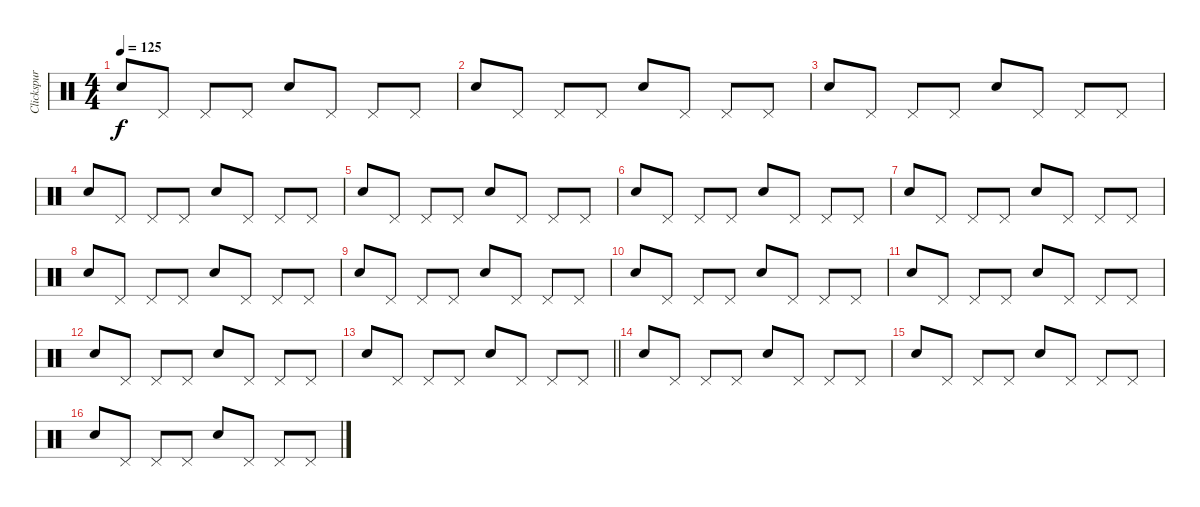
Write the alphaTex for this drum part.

\track ("Clickspur" "Clickspur") {instrument percussion}
\staff {score}
\articulation defaults
\ts (4 4)
\tempo 125
\clef neutral
\ks c "Electric Snare (hit)".8{dy f} "Pedal Hi-Hat (hit)".8 "Pedal Hi-Hat (hit)".8 "Pedal Hi-Hat (hit)".8 "Electric Snare (hit)".8 "Pedal Hi-Hat (hit)".8 "Pedal Hi-Hat (hit)".8 "Pedal Hi-Hat (hit)".8
|
"Electric Snare (hit)".8 "Pedal Hi-Hat (hit)".8 "Pedal Hi-Hat (hit)".8 "Pedal Hi-Hat (hit)".8 "Electric Snare (hit)".8 "Pedal Hi-Hat (hit)".8 "Pedal Hi-Hat (hit)".8 "Pedal Hi-Hat (hit)".8 |
"Electric Snare (hit)".8 "Pedal Hi-Hat (hit)".8 "Pedal Hi-Hat (hit)".8 "Pedal Hi-Hat (hit)".8 "Electric Snare (hit)".8 "Pedal Hi-Hat (hit)".8 "Pedal Hi-Hat (hit)".8 "Pedal Hi-Hat (hit)".8 |
"Electric Snare (hit)".8 "Pedal Hi-Hat (hit)".8 "Pedal Hi-Hat (hit)".8 "Pedal Hi-Hat (hit)".8 "Electric Snare (hit)".8 "Pedal Hi-Hat (hit)".8 "Pedal Hi-Hat (hit)".8 "Pedal Hi-Hat (hit)".8 |
"Electric Snare (hit)".8 "Pedal Hi-Hat (hit)".8 "Pedal Hi-Hat (hit)".8 "Pedal Hi-Hat (hit)".8 "Electric Snare (hit)".8 "Pedal Hi-Hat (hit)".8 "Pedal Hi-Hat (hit)".8 "Pedal Hi-Hat (hit)".8 |
"Electric Snare (hit)".8 "Pedal Hi-Hat (hit)".8 "Pedal Hi-Hat (hit)".8 "Pedal Hi-Hat (hit)".8 "Electric Snare (hit)".8 "Pedal Hi-Hat (hit)".8 "Pedal Hi-Hat (hit)".8 "Pedal Hi-Hat (hit)".8 |
"Electric Snare (hit)".8 "Pedal Hi-Hat (hit)".8 "Pedal Hi-Hat (hit)".8 "Pedal Hi-Hat (hit)".8 "Electric Snare (hit)".8 "Pedal Hi-Hat (hit)".8 "Pedal Hi-Hat (hit)".8 "Pedal Hi-Hat (hit)".8 |
"Electric Snare (hit)".8 "Pedal Hi-Hat (hit)".8 "Pedal Hi-Hat (hit)".8 "Pedal Hi-Hat (hit)".8 "Electric Snare (hit)".8 "Pedal Hi-Hat (hit)".8 "Pedal Hi-Hat (hit)".8 "Pedal Hi-Hat (hit)".8 |
"Electric Snare (hit)".8 "Pedal Hi-Hat (hit)".8 "Pedal Hi-Hat (hit)".8 "Pedal Hi-Hat (hit)".8 "Electric Snare (hit)".8 "Pedal Hi-Hat (hit)".8 "Pedal Hi-Hat (hit)".8 "Pedal Hi-Hat (hit)".8 |
"Electric Snare (hit)".8 "Pedal Hi-Hat (hit)".8 "Pedal Hi-Hat (hit)".8 "Pedal Hi-Hat (hit)".8 "Electric Snare (hit)".8 "Pedal Hi-Hat (hit)".8 "Pedal Hi-Hat (hit)".8 "Pedal Hi-Hat (hit)".8 |
"Electric Snare (hit)".8 "Pedal Hi-Hat (hit)".8 "Pedal Hi-Hat (hit)".8 "Pedal Hi-Hat (hit)".8 "Electric Snare (hit)".8 "Pedal Hi-Hat (hit)".8 "Pedal Hi-Hat (hit)".8 "Pedal Hi-Hat (hit)".8 |
"Electric Snare (hit)".8 "Pedal Hi-Hat (hit)".8 "Pedal Hi-Hat (hit)".8 "Pedal Hi-Hat (hit)".8 "Electric Snare (hit)".8 "Pedal Hi-Hat (hit)".8 "Pedal Hi-Hat (hit)".8 "Pedal Hi-Hat (hit)".8 |
\barLineRight lightlight "Electric Snare (hit)".8 "Pedal Hi-Hat (hit)".8 "Pedal Hi-Hat (hit)".8 "Pedal Hi-Hat (hit)".8 "Electric Snare (hit)".8 "Pedal Hi-Hat (hit)".8 "Pedal Hi-Hat (hit)".8 "Pedal Hi-Hat (hit)".8
|
"Electric Snare (hit)".8 "Pedal Hi-Hat (hit)".8 "Pedal Hi-Hat (hit)".8 "Pedal Hi-Hat (hit)".8 "Electric Snare (hit)".8 "Pedal Hi-Hat (hit)".8 "Pedal Hi-Hat (hit)".8 "Pedal Hi-Hat (hit)".8 |
"Electric Snare (hit)".8 "Pedal Hi-Hat (hit)".8 "Pedal Hi-Hat (hit)".8 "Pedal Hi-Hat (hit)".8 "Electric Snare (hit)".8 "Pedal Hi-Hat (hit)".8 "Pedal Hi-Hat (hit)".8 "Pedal Hi-Hat (hit)".8 |
"Electric Snare (hit)".8 "Pedal Hi-Hat (hit)".8 "Pedal Hi-Hat (hit)".8 "Pedal Hi-Hat (hit)".8 "Electric Snare (hit)".8 "Pedal Hi-Hat (hit)".8 "Pedal Hi-Hat (hit)".8 "Pedal Hi-Hat (hit)".8
